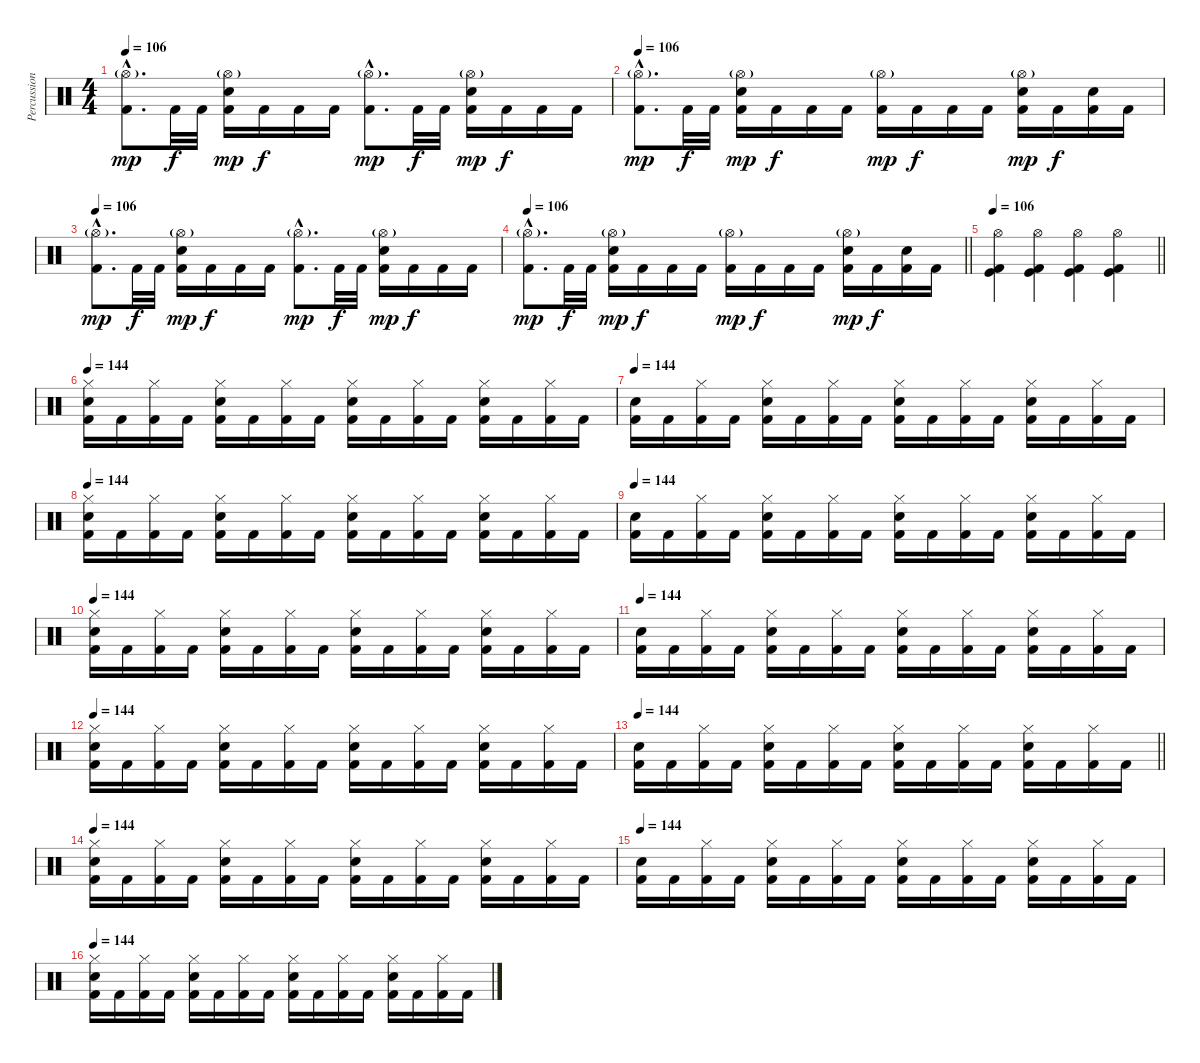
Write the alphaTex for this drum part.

\track ("Percussions" "Percussion") {instrument percussion}
\staff {score}
\articulation defaults
\ts (4 4)
\tempo 106
\clef neutral
\ks c
("Hi-Hat (open)"{g hac} "Kick (hit) 2"{hac}).8{d dy mp} "Kick (hit) 2".32{dy f} "Kick (hit) 2".32 ("Hi-Hat (open)"{g} "Electric Snare (hit)" "Kick (hit) 2").16{dy mp} "Kick (hit) 2".16{dy f} "Kick (hit) 2".16 "Kick (hit) 2".16 ("Hi-Hat (open)"{g hac} "Kick (hit) 2"{hac}).8{d dy mp} "Kick (hit) 2".32{dy f} "Kick (hit) 2".32 ("Hi-Hat (open)"{g} "Electric Snare (hit)" "Kick (hit) 2").16{dy mp} "Kick (hit) 2".16{dy f} "Kick (hit) 2".16 "Kick (hit) 2".16 |
\tempo 106
("Hi-Hat (open)"{g hac} "Kick (hit) 2"{hac}).8{d dy mp} "Kick (hit) 2".32{dy f} "Kick (hit) 2".32 ("Hi-Hat (open)"{g} "Electric Snare (hit)" "Kick (hit) 2").16{dy mp} "Kick (hit) 2".16{dy f} "Kick (hit) 2".16 "Kick (hit) 2".16 ("Hi-Hat (open)"{g} "Kick (hit) 2").16{dy mp} "Kick (hit) 2".16{dy f} "Kick (hit) 2".16 "Kick (hit) 2".16 ("Hi-Hat (open)"{g} "Electric Snare (hit)" "Kick (hit) 2").16{dy mp} "Kick (hit) 2".16{dy f} ("Electric Snare (hit)" "Kick (hit) 2").16 "Kick (hit) 2".16 |
\tempo 106
("Hi-Hat (open)"{g hac} "Kick (hit) 2"{hac}).8{d dy mp} "Kick (hit) 2".32{dy f} "Kick (hit) 2".32 ("Hi-Hat (open)"{g} "Electric Snare (hit)" "Kick (hit) 2").16{dy mp} "Kick (hit) 2".16{dy f} "Kick (hit) 2".16 "Kick (hit) 2".16 ("Hi-Hat (open)"{g hac} "Kick (hit) 2"{hac}).8{d dy mp} "Kick (hit) 2".32{dy f} "Kick (hit) 2".32 ("Hi-Hat (open)"{g} "Electric Snare (hit)" "Kick (hit) 2").16{dy mp} "Kick (hit) 2".16{dy f} "Kick (hit) 2".16 "Kick (hit) 2".16 |
\tempo 106
\barLineRight lightlight
("Hi-Hat (open)"{g hac} "Kick (hit) 2"{hac}).8{d dy mp} "Kick (hit) 2".32{dy f} "Kick (hit) 2".32 ("Hi-Hat (open)"{g} "Electric Snare (hit)" "Kick (hit) 2").16{dy mp} "Kick (hit) 2".16{dy f} "Kick (hit) 2".16 "Kick (hit) 2".16 ("Hi-Hat (open)"{g} "Kick (hit) 2").16{dy mp} "Kick (hit) 2".16{dy f} "Kick (hit) 2".16 "Kick (hit) 2".16 ("Hi-Hat (open)"{g} "Electric Snare (hit)" "Kick (hit) 2").16{dy mp} "Kick (hit) 2".16{dy f} ("Electric Snare (hit)" "Kick (hit) 2").16 "Kick (hit) 2".16 |
\tempo 106
\barLineRight lightlight
("Hi-Hat (open)" "Kick (hit)" "Kick (hit) 2").4 ("Hi-Hat (open)" "Kick (hit)" "Kick (hit) 2").4 ("Hi-Hat (open)" "Kick (hit)" "Kick (hit) 2").4 ("Hi-Hat (open)" "Kick (hit)" "Kick (hit) 2").4 |
\tempo 144
("Hi-Hat (closed)" "Electric Snare (hit)" "Kick (hit) 2").16 "Kick (hit) 2".16 ("Hi-Hat (closed)" "Kick (hit) 2").16 "Kick (hit) 2".16 ("Hi-Hat (closed)" "Electric Snare (hit)" "Kick (hit) 2").16 "Kick (hit) 2".16 ("Hi-Hat (closed)" "Kick (hit) 2").16 "Kick (hit) 2".16 ("Hi-Hat (closed)" "Electric Snare (hit)" "Kick (hit) 2").16 "Kick (hit) 2".16 ("Hi-Hat (closed)" "Kick (hit) 2").16 "Kick (hit) 2".16 ("Hi-Hat (closed)" "Electric Snare (hit)" "Kick (hit) 2").16 "Kick (hit) 2".16 ("Hi-Hat (closed)" "Kick (hit) 2").16 "Kick (hit) 2".16 |
\tempo 144
("Electric Snare (hit)" "Kick (hit) 2").16 "Kick (hit) 2".16 ("Hi-Hat (closed)" "Kick (hit) 2").16 "Kick (hit) 2".16 ("Hi-Hat (closed)" "Electric Snare (hit)" "Kick (hit) 2").16 "Kick (hit) 2".16 ("Hi-Hat (closed)" "Kick (hit) 2").16 "Kick (hit) 2".16 ("Hi-Hat (closed)" "Electric Snare (hit)" "Kick (hit) 2").16 "Kick (hit) 2".16 ("Hi-Hat (closed)" "Kick (hit) 2").16 "Kick (hit) 2".16 ("Hi-Hat (closed)" "Electric Snare (hit)" "Kick (hit) 2").16 "Kick (hit) 2".16 ("Hi-Hat (closed)" "Kick (hit) 2").16 "Kick (hit) 2".16 |
\tempo 144
("Hi-Hat (closed)" "Electric Snare (hit)" "Kick (hit) 2").16 "Kick (hit) 2".16 ("Hi-Hat (closed)" "Kick (hit) 2").16 "Kick (hit) 2".16 ("Hi-Hat (closed)" "Electric Snare (hit)" "Kick (hit) 2").16 "Kick (hit) 2".16 ("Hi-Hat (closed)" "Kick (hit) 2").16 "Kick (hit) 2".16 ("Hi-Hat (closed)" "Electric Snare (hit)" "Kick (hit) 2").16 "Kick (hit) 2".16 ("Hi-Hat (closed)" "Kick (hit) 2").16 "Kick (hit) 2".16 ("Hi-Hat (closed)" "Electric Snare (hit)" "Kick (hit) 2").16 "Kick (hit) 2".16 ("Hi-Hat (closed)" "Kick (hit) 2").16 "Kick (hit) 2".16 |
\tempo 144
("Electric Snare (hit)" "Kick (hit) 2").16 "Kick (hit) 2".16 ("Hi-Hat (closed)" "Kick (hit) 2").16 "Kick (hit) 2".16 ("Hi-Hat (closed)" "Electric Snare (hit)" "Kick (hit) 2").16 "Kick (hit) 2".16 ("Hi-Hat (closed)" "Kick (hit) 2").16 "Kick (hit) 2".16 ("Hi-Hat (closed)" "Electric Snare (hit)" "Kick (hit) 2").16 "Kick (hit) 2".16 ("Hi-Hat (closed)" "Kick (hit) 2").16 "Kick (hit) 2".16 ("Hi-Hat (closed)" "Electric Snare (hit)" "Kick (hit) 2").16 "Kick (hit) 2".16 ("Hi-Hat (closed)" "Kick (hit) 2").16 "Kick (hit) 2".16 |
\tempo 144
("Hi-Hat (closed)" "Electric Snare (hit)" "Kick (hit) 2").16 "Kick (hit) 2".16 ("Hi-Hat (closed)" "Kick (hit) 2").16 "Kick (hit) 2".16 ("Hi-Hat (closed)" "Electric Snare (hit)" "Kick (hit) 2").16 "Kick (hit) 2".16 ("Hi-Hat (closed)" "Kick (hit) 2").16 "Kick (hit) 2".16 ("Hi-Hat (closed)" "Electric Snare (hit)" "Kick (hit) 2").16 "Kick (hit) 2".16 ("Hi-Hat (closed)" "Kick (hit) 2").16 "Kick (hit) 2".16 ("Hi-Hat (closed)" "Electric Snare (hit)" "Kick (hit) 2").16 "Kick (hit) 2".16 ("Hi-Hat (closed)" "Kick (hit) 2").16 "Kick (hit) 2".16 |
\tempo 144
("Electric Snare (hit)" "Kick (hit) 2").16 "Kick (hit) 2".16 ("Hi-Hat (closed)" "Kick (hit) 2").16 "Kick (hit) 2".16 ("Hi-Hat (closed)" "Electric Snare (hit)" "Kick (hit) 2").16 "Kick (hit) 2".16 ("Hi-Hat (closed)" "Kick (hit) 2").16 "Kick (hit) 2".16 ("Hi-Hat (closed)" "Electric Snare (hit)" "Kick (hit) 2").16 "Kick (hit) 2".16 ("Hi-Hat (closed)" "Kick (hit) 2").16 "Kick (hit) 2".16 ("Hi-Hat (closed)" "Electric Snare (hit)" "Kick (hit) 2").16 "Kick (hit) 2".16 ("Hi-Hat (closed)" "Kick (hit) 2").16 "Kick (hit) 2".16 |
\tempo 144
("Hi-Hat (closed)" "Electric Snare (hit)" "Kick (hit) 2").16 "Kick (hit) 2".16 ("Hi-Hat (closed)" "Kick (hit) 2").16 "Kick (hit) 2".16 ("Hi-Hat (closed)" "Electric Snare (hit)" "Kick (hit) 2").16 "Kick (hit) 2".16 ("Hi-Hat (closed)" "Kick (hit) 2").16 "Kick (hit) 2".16 ("Hi-Hat (closed)" "Electric Snare (hit)" "Kick (hit) 2").16 "Kick (hit) 2".16 ("Hi-Hat (closed)" "Kick (hit) 2").16 "Kick (hit) 2".16 ("Hi-Hat (closed)" "Electric Snare (hit)" "Kick (hit) 2").16 "Kick (hit) 2".16 ("Hi-Hat (closed)" "Kick (hit) 2").16 "Kick (hit) 2".16 |
\tempo 144
\barLineRight lightlight
("Electric Snare (hit)" "Kick (hit) 2").16 "Kick (hit) 2".16 ("Hi-Hat (closed)" "Kick (hit) 2").16 "Kick (hit) 2".16 ("Hi-Hat (closed)" "Electric Snare (hit)" "Kick (hit) 2").16 "Kick (hit) 2".16 ("Hi-Hat (closed)" "Kick (hit) 2").16 "Kick (hit) 2".16 ("Hi-Hat (closed)" "Electric Snare (hit)" "Kick (hit) 2").16 "Kick (hit) 2".16 ("Hi-Hat (closed)" "Kick (hit) 2").16 "Kick (hit) 2".16 ("Hi-Hat (closed)" "Electric Snare (hit)" "Kick (hit) 2").16 "Kick (hit) 2".16 ("Hi-Hat (closed)" "Kick (hit) 2").16 "Kick (hit) 2".16 |
\tempo 144
("Hi-Hat (closed)" "Electric Snare (hit)" "Kick (hit) 2").16 "Kick (hit) 2".16 ("Hi-Hat (closed)" "Kick (hit) 2").16 "Kick (hit) 2".16 ("Hi-Hat (closed)" "Electric Snare (hit)" "Kick (hit) 2").16 "Kick (hit) 2".16 ("Hi-Hat (closed)" "Kick (hit) 2").16 "Kick (hit) 2".16 ("Hi-Hat (closed)" "Electric Snare (hit)" "Kick (hit) 2").16 "Kick (hit) 2".16 ("Hi-Hat (closed)" "Kick (hit) 2").16 "Kick (hit) 2".16 ("Hi-Hat (closed)" "Electric Snare (hit)" "Kick (hit) 2").16 "Kick (hit) 2".16 ("Hi-Hat (closed)" "Kick (hit) 2").16 "Kick (hit) 2".16 |
\tempo 144
("Electric Snare (hit)" "Kick (hit) 2").16 "Kick (hit) 2".16 ("Hi-Hat (closed)" "Kick (hit) 2").16 "Kick (hit) 2".16 ("Hi-Hat (closed)" "Electric Snare (hit)" "Kick (hit) 2").16 "Kick (hit) 2".16 ("Hi-Hat (closed)" "Kick (hit) 2").16 "Kick (hit) 2".16 ("Hi-Hat (closed)" "Electric Snare (hit)" "Kick (hit) 2").16 "Kick (hit) 2".16 ("Hi-Hat (closed)" "Kick (hit) 2").16 "Kick (hit) 2".16 ("Hi-Hat (closed)" "Electric Snare (hit)" "Kick (hit) 2").16 "Kick (hit) 2".16 ("Hi-Hat (closed)" "Kick (hit) 2").16 "Kick (hit) 2".16 |
\tempo 144
("Hi-Hat (closed)" "Electric Snare (hit)" "Kick (hit) 2").16 "Kick (hit) 2".16 ("Hi-Hat (closed)" "Kick (hit) 2").16 "Kick (hit) 2".16 ("Hi-Hat (closed)" "Electric Snare (hit)" "Kick (hit) 2").16 "Kick (hit) 2".16 ("Hi-Hat (closed)" "Kick (hit) 2").16 "Kick (hit) 2".16 ("Hi-Hat (closed)" "Electric Snare (hit)" "Kick (hit) 2").16 "Kick (hit) 2".16 ("Hi-Hat (closed)" "Kick (hit) 2").16 "Kick (hit) 2".16 ("Hi-Hat (closed)" "Electric Snare (hit)" "Kick (hit) 2").16 "Kick (hit) 2".16 ("Hi-Hat (closed)" "Kick (hit) 2").16 "Kick (hit) 2".16
